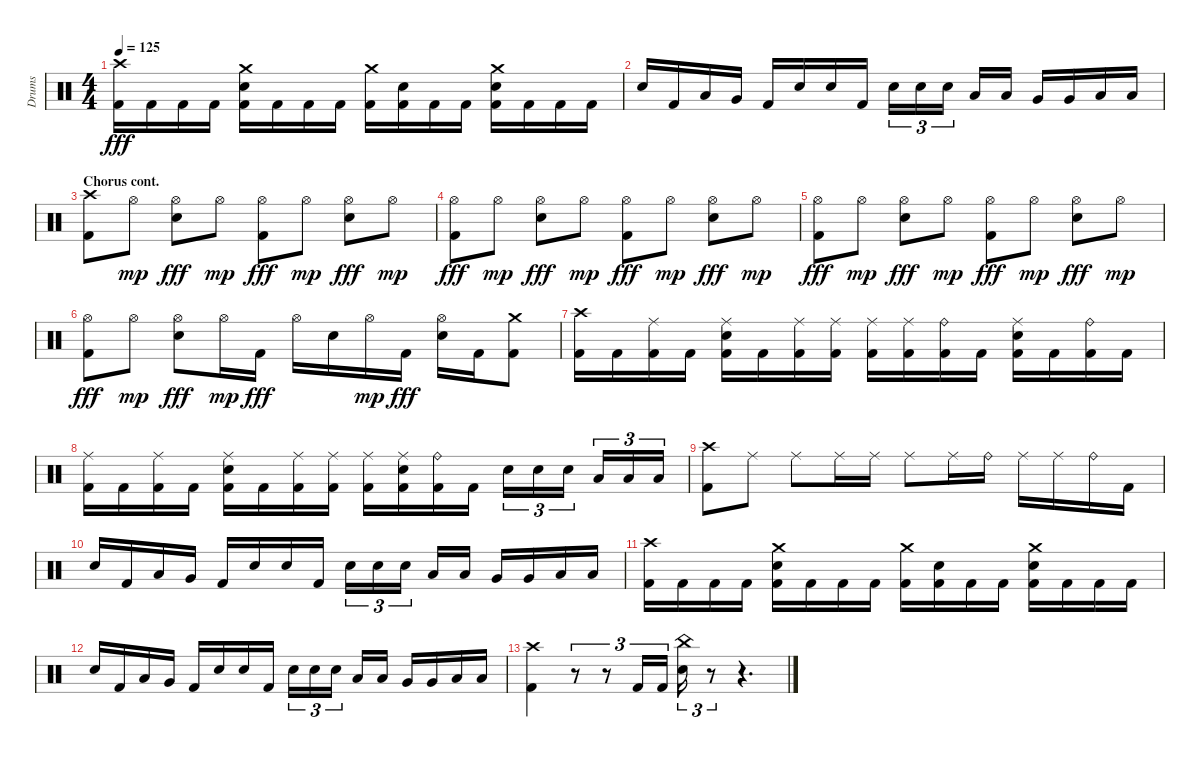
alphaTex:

\track ("Drums" "Drums") {instrument percussion}
\staff {score}
\articulation defaults
\ts (4 4)
\tempo 125
\clef neutral
\ks aminor
("Kick (hit) 2" "Crash high (hit)").16{dy fff} "Kick (hit) 2".16 "Kick (hit) 2".16 "Kick (hit) 2".16 ("Kick (hit) 2" "Snare (hit) 2" "Crash medium (hit)").16 "Kick (hit) 2".16 "Kick (hit) 2".16 "Kick (hit) 2".16 ("Kick (hit) 2" "Crash medium (hit)").16 ("Kick (hit) 2" "Snare (hit) 2").16 "Kick (hit) 2".16 "Kick (hit) 2".16 ("Kick (hit) 2" "Snare (hit) 2" "Crash medium (hit)").16 "Kick (hit) 2".16 "Kick (hit) 2".16 "Kick (hit) 2".16 |
"Snare (hit) 2".16 "Kick (hit) 2".16 "Low Tom (hit)".16 "Very Low Tom (hit)".16 "Kick (hit) 2".16 "Snare (hit) 2".16 "Snare (hit) 2".16 "Kick (hit) 2".16 "Snare (hit) 2".16{tu (3 2)} "Snare (hit) 2".16{tu (3 2)} "Snare (hit) 2".16{tu (3 2)} "Low Tom (hit)".16 "Low Tom (hit)".16 "Very Low Tom (hit)".16 "Very Low Tom (hit)".16 "Low Floor Tom (hit)".16 "Low Floor Tom (hit)".16 |
\section ("" "Chorus cont.")
("Kick (hit) 2" "Crash high (hit)").8 "Hi-Hat (open)".8{dy mp} ("Snare (hit) 2" "Hi-Hat (open)").8{dy fff} "Hi-Hat (open)".8{dy mp} ("Kick (hit) 2" "Hi-Hat (open)").8{dy fff} "Hi-Hat (open)".8{dy mp} ("Snare (hit) 2" "Hi-Hat (open)").8{dy fff} "Hi-Hat (open)".8{dy mp} |
("Kick (hit) 2" "Hi-Hat (open)").8{dy fff} "Hi-Hat (open)".8{dy mp} ("Snare (hit) 2" "Hi-Hat (open)").8{dy fff} "Hi-Hat (open)".8{dy mp} ("Kick (hit) 2" "Hi-Hat (open)").8{dy fff} "Hi-Hat (open)".8{dy mp} ("Snare (hit) 2" "Hi-Hat (open)").8{dy fff} "Hi-Hat (open)".8{dy mp} |
("Kick (hit) 2" "Hi-Hat (open)").8{dy fff} "Hi-Hat (open)".8{dy mp} ("Snare (hit) 2" "Hi-Hat (open)").8{dy fff} "Hi-Hat (open)".8{dy mp} ("Kick (hit) 2" "Hi-Hat (open)").8{dy fff} "Hi-Hat (open)".8{dy mp} ("Snare (hit) 2" "Hi-Hat (open)").8{dy fff} "Hi-Hat (open)".8{dy mp} |
("Kick (hit) 2" "Hi-Hat (open)").8{dy fff} "Hi-Hat (open)".8{dy mp} ("Snare (hit) 2" "Hi-Hat (open)").8{dy fff} "Hi-Hat (open)".16{dy mp} "Kick (hit) 2".16{dy fff} "Hi-Hat (open)".16 "Snare (hit) 2".16 "Hi-Hat (open)".16{dy mp} "Kick (hit) 2".16{dy fff} ("Snare (hit) 2" "Hi-Hat (open)").16 "Kick (hit) 2".16 ("Kick (hit) 2" "Crash medium (hit)").8 |
("Kick (hit) 2" "Crash high (hit)").16 "Kick (hit) 2".16 ("Kick (hit) 2" "Ride (middle)").16 "Kick (hit) 2".16 ("Kick (hit) 2" "Snare (hit) 2" "Ride (middle)").16 "Kick (hit) 2".16 ("Kick (hit) 2" "Ride (middle)").16 ("Kick (hit) 2" "Ride (middle)").16 ("Kick (hit) 2" "Ride (middle)").16 ("Kick (hit) 2" "Ride (middle)").16 ("Kick (hit) 2" "Ride (bell)").16 "Kick (hit) 2".16 ("Kick (hit) 2" "Snare (hit) 2" "Ride (middle)").16 "Kick (hit) 2".16 ("Kick (hit) 2" "Ride (bell)").16 "Kick (hit) 2".16 |
("Kick (hit) 2" "Ride (middle)").16 "Kick (hit) 2".16 ("Kick (hit) 2" "Ride (middle)").16 "Kick (hit) 2".16 ("Kick (hit) 2" "Snare (hit) 2" "Ride (middle)").16 "Kick (hit) 2".16 ("Kick (hit) 2" "Ride (middle)").16 ("Kick (hit) 2" "Ride (middle)").16 ("Kick (hit) 2" "Ride (middle)").16 ("Kick (hit) 2" "Snare (hit) 2" "Ride (middle)").16 ("Kick (hit) 2" "Ride (bell)").16 "Kick (hit) 2".16 "Snare (hit) 2".16{tu (3 2)} "Snare (hit) 2".16{tu (3 2)} "Snare (hit) 2".16{tu (3 2)} "Low Floor Tom (hit)".16{tu (3 2)} "Low Floor Tom (hit)".16{tu (3 2)} "Low Floor Tom (hit)".16{tu (3 2)} |
("Kick (hit) 2" "Crash high (hit)").8 "Ride (middle)".8 "Ride (middle)".8 "Ride (middle)".16 "Ride (middle)".16 "Ride (middle)".8 "Ride (middle)".16 "Ride (bell)".16 "Ride (middle)".16 "Ride (middle)".16 "Ride (bell)".16 "Kick (hit) 2".16 |
"Snare (hit) 2".16 "Kick (hit) 2".16 "Low Tom (hit)".16 "Very Low Tom (hit)".16 "Kick (hit) 2".16 "Snare (hit) 2".16 "Snare (hit) 2".16 "Kick (hit) 2".16 "Snare (hit) 2".16{tu (3 2)} "Snare (hit) 2".16{tu (3 2)} "Snare (hit) 2".16{tu (3 2)} "Low Tom (hit)".16 "Low Tom (hit)".16 "Very Low Tom (hit)".16 "Very Low Tom (hit)".16 "Low Floor Tom (hit)".16 "Low Floor Tom (hit)".16 |
("Kick (hit) 2" "Crash high (hit)").16 "Kick (hit) 2".16 "Kick (hit) 2".16 "Kick (hit) 2".16 ("Kick (hit) 2" "Snare (hit) 2" "Crash medium (hit)").16 "Kick (hit) 2".16 "Kick (hit) 2".16 "Kick (hit) 2".16 ("Kick (hit) 2" "Crash medium (hit)").16 ("Kick (hit) 2" "Snare (hit) 2").16 "Kick (hit) 2".16 "Kick (hit) 2".16 ("Kick (hit) 2" "Snare (hit) 2" "Crash medium (hit)").16 "Kick (hit) 2".16 "Kick (hit) 2".16 "Kick (hit) 2".16 |
"Snare (hit) 2".16 "Kick (hit) 2".16 "Low Tom (hit)".16 "Very Low Tom (hit)".16 "Kick (hit) 2".16 "Snare (hit) 2".16 "Snare (hit) 2".16 "Kick (hit) 2".16 "Snare (hit) 2".16{tu (3 2)} "Snare (hit) 2".16{tu (3 2)} "Snare (hit) 2".16{tu (3 2)} "Low Tom (hit)".16 "Low Tom (hit)".16 "Very Low Tom (hit)".16 "Very Low Tom (hit)".16 "Low Floor Tom (hit)".16 "Low Floor Tom (hit)".16 |
("Kick (hit) 2" "Crash high (hit)").4 r.8{tu (3 2)} r.8{tu (3 2)} "Kick (hit) 2".16{tu (3 2)} "Kick (hit) 2".16{tu (3 2)} ("Snare (hit) 2" "China (hit)").16{tu (3 2)} r.8{tu (3 2)} r.4{d}
